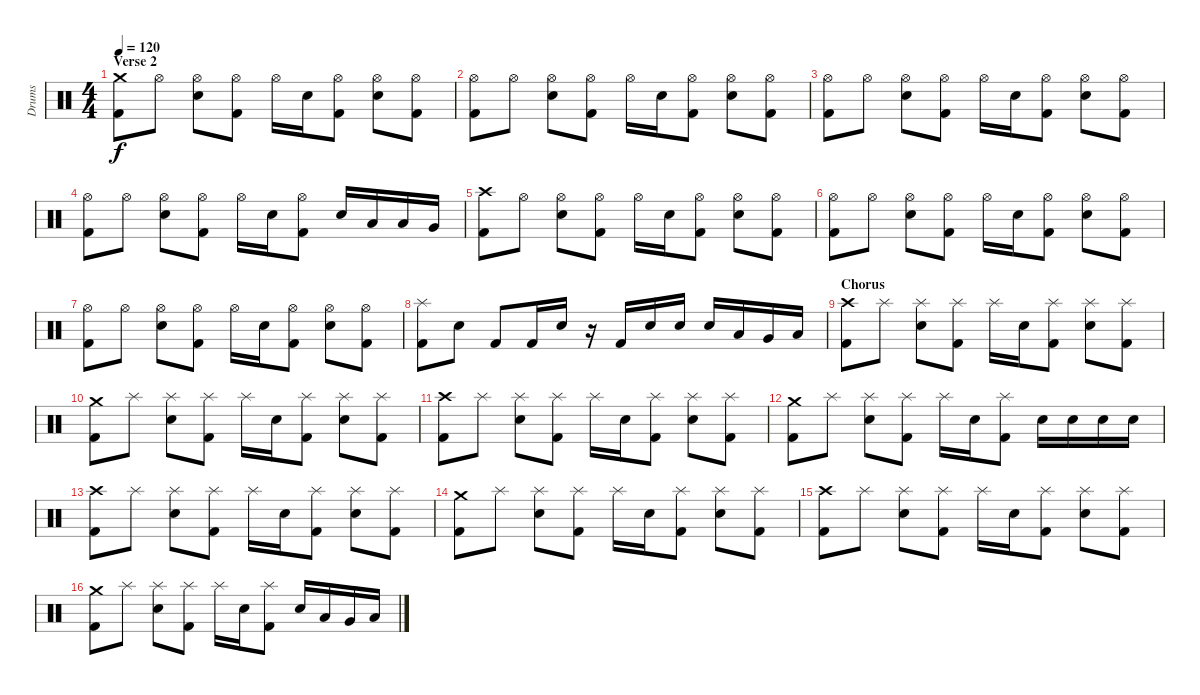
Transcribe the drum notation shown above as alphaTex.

\track ("Drums" "Drums") {instrument percussion}
\staff {score}
\articulation defaults
\ts (4 4)
\section ("" "Verse 2")
\tempo 120
\clef neutral
\ks c
("Kick (hit) 2" "Crash medium (hit)").8{dy f} "Hi-Hat (open)".8 ("Electric Snare (hit)" "Hi-Hat (open)").8 ("Kick (hit) 2" "Hi-Hat (open)").8 "Hi-Hat (open)".16 "Electric Snare (hit)".16 ("Kick (hit) 2" "Hi-Hat (open)").8 ("Electric Snare (hit)" "Hi-Hat (open)").8 ("Kick (hit) 2" "Hi-Hat (open)").8 |
("Kick (hit) 2" "Hi-Hat (open)").8 "Hi-Hat (open)".8 ("Electric Snare (hit)" "Hi-Hat (open)").8 ("Kick (hit) 2" "Hi-Hat (open)").8 "Hi-Hat (open)".16 "Electric Snare (hit)".16 ("Kick (hit) 2" "Hi-Hat (open)").8 ("Electric Snare (hit)" "Hi-Hat (open)").8 ("Kick (hit) 2" "Hi-Hat (open)").8 |
("Kick (hit) 2" "Hi-Hat (open)").8 "Hi-Hat (open)".8 ("Electric Snare (hit)" "Hi-Hat (open)").8 ("Kick (hit) 2" "Hi-Hat (open)").8 "Hi-Hat (open)".16 "Electric Snare (hit)".16 ("Kick (hit) 2" "Hi-Hat (open)").8 ("Electric Snare (hit)" "Hi-Hat (open)").8 ("Kick (hit) 2" "Hi-Hat (open)").8 |
("Kick (hit) 2" "Hi-Hat (open)").8 "Hi-Hat (open)".8 ("Electric Snare (hit)" "Hi-Hat (open)").8 ("Kick (hit) 2" "Hi-Hat (open)").8 "Hi-Hat (open)".16 "Electric Snare (hit)".16 ("Kick (hit) 2" "Hi-Hat (open)").8 "Electric Snare (hit)".16 "Low Tom (hit)".16 "Low Tom (hit)".16 "Very Low Tom (hit)".16 |
("Kick (hit) 2" "Crash high (hit)").8 "Hi-Hat (open)".8 ("Electric Snare (hit)" "Hi-Hat (open)").8 ("Kick (hit) 2" "Hi-Hat (open)").8 "Hi-Hat (open)".16 "Electric Snare (hit)".16 ("Kick (hit) 2" "Hi-Hat (open)").8 ("Electric Snare (hit)" "Hi-Hat (open)").8 ("Kick (hit) 2" "Hi-Hat (open)").8 |
("Kick (hit) 2" "Hi-Hat (open)").8 "Hi-Hat (open)".8 ("Electric Snare (hit)" "Hi-Hat (open)").8 ("Kick (hit) 2" "Hi-Hat (open)").8 "Hi-Hat (open)".16 "Electric Snare (hit)".16 ("Kick (hit) 2" "Hi-Hat (open)").8 ("Electric Snare (hit)" "Hi-Hat (open)").8 ("Kick (hit) 2" "Hi-Hat (open)").8 |
("Kick (hit) 2" "Hi-Hat (open)").8 "Hi-Hat (open)".8 ("Electric Snare (hit)" "Hi-Hat (open)").8 ("Kick (hit) 2" "Hi-Hat (open)").8 "Hi-Hat (open)".16 "Electric Snare (hit)".16 ("Kick (hit) 2" "Hi-Hat (open)").8 ("Electric Snare (hit)" "Hi-Hat (open)").8 ("Kick (hit) 2" "Hi-Hat (open)").8 |
("Kick (hit) 2" "Splash (hit)").8 "Electric Snare (hit)".8 "Kick (hit) 2".8 "Kick (hit) 2".16 "Electric Snare (hit)".16 r.16 "Kick (hit) 2".16 "Electric Snare (hit)".16 "Electric Snare (hit)".16 "Electric Snare (hit)".16 "Low Tom (hit)".16 "Very Low Tom (hit)".16 "Low Floor Tom (hit)".16 |
\section ("" "Chorus")
("Kick (hit) 2" "Crash high (hit)").8 "Splash (hit)".8 ("Electric Snare (hit)" "Splash (hit)").8 ("Kick (hit) 2" "Splash (hit)").8 "Splash (hit)".16 "Electric Snare (hit)".16 ("Kick (hit) 2" "Splash (hit)").8 ("Electric Snare (hit)" "Splash (hit)").8 ("Kick (hit) 2" "Splash (hit)").8 |
("Kick (hit) 2" "Crash medium (hit)").8 "Splash (hit)".8 ("Electric Snare (hit)" "Splash (hit)").8 ("Kick (hit) 2" "Splash (hit)").8 "Splash (hit)".16 "Electric Snare (hit)".16 ("Kick (hit) 2" "Splash (hit)").8 ("Electric Snare (hit)" "Splash (hit)").8 ("Kick (hit) 2" "Splash (hit)").8 |
("Kick (hit) 2" "Crash high (hit)").8 "Splash (hit)".8 ("Electric Snare (hit)" "Splash (hit)").8 ("Kick (hit) 2" "Splash (hit)").8 "Splash (hit)".16 "Electric Snare (hit)".16 ("Kick (hit) 2" "Splash (hit)").8 ("Electric Snare (hit)" "Splash (hit)").8 ("Kick (hit) 2" "Splash (hit)").8 |
("Kick (hit) 2" "Crash medium (hit)").8 "Splash (hit)".8 ("Electric Snare (hit)" "Splash (hit)").8 ("Kick (hit) 2" "Splash (hit)").8 "Splash (hit)".16 "Electric Snare (hit)".16 ("Kick (hit) 2" "Splash (hit)").8 "Electric Snare (hit)".16 "Electric Snare (hit)".16 "Electric Snare (hit)".16 "Electric Snare (hit)".16 |
("Kick (hit) 2" "Crash high (hit)").8 "Splash (hit)".8 ("Electric Snare (hit)" "Splash (hit)").8 ("Kick (hit) 2" "Splash (hit)").8 "Splash (hit)".16 "Electric Snare (hit)".16 ("Kick (hit) 2" "Splash (hit)").8 ("Electric Snare (hit)" "Splash (hit)").8 ("Kick (hit) 2" "Splash (hit)").8 |
("Kick (hit) 2" "Crash medium (hit)").8 "Splash (hit)".8 ("Electric Snare (hit)" "Splash (hit)").8 ("Kick (hit) 2" "Splash (hit)").8 "Splash (hit)".16 "Electric Snare (hit)".16 ("Kick (hit) 2" "Splash (hit)").8 ("Electric Snare (hit)" "Splash (hit)").8 ("Kick (hit) 2" "Splash (hit)").8 |
("Kick (hit) 2" "Crash high (hit)").8 "Splash (hit)".8 ("Electric Snare (hit)" "Splash (hit)").8 ("Kick (hit) 2" "Splash (hit)").8 "Splash (hit)".16 "Electric Snare (hit)".16 ("Kick (hit) 2" "Splash (hit)").8 ("Electric Snare (hit)" "Splash (hit)").8 ("Kick (hit) 2" "Splash (hit)").8 |
("Kick (hit) 2" "Crash medium (hit)").8 "Splash (hit)".8 ("Electric Snare (hit)" "Splash (hit)").8 ("Kick (hit) 2" "Splash (hit)").8 "Splash (hit)".16 "Electric Snare (hit)".16 ("Kick (hit) 2" "Splash (hit)").8 "Electric Snare (hit)".16 "Low Tom (hit)".16 "Very Low Tom (hit)".16 "Low Floor Tom (hit)".16
